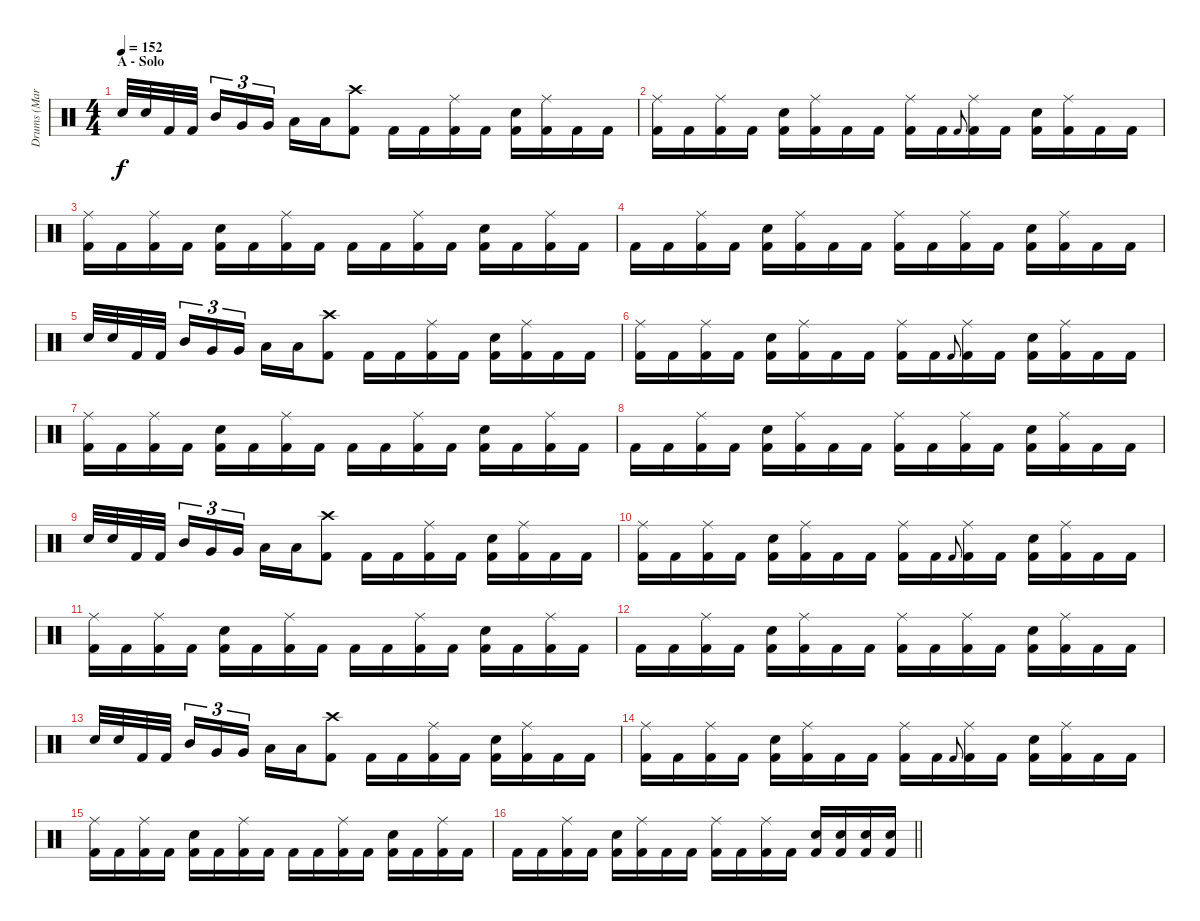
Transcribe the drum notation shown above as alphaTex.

\track ("Drums (Mark Arrington)" "Drums (Mar") {instrument percussion}
\staff {score}
\articulation defaults
\ts (4 4)
\section ("" "A - Solo")
\tempo 152
\clef neutral
\ks aminor "Electric Snare (hit)".32{dy f} "Electric Snare (hit)".32 "Kick (hit) 2".32 "Kick (hit) 2".32{beam splitsecondary} "Mid Tom (hit)".16{tu (3 2)} "Very Low Tom (hit)".16{tu (3 2)} "Very Low Tom (hit)".16{tu (3 2)} "Low Floor Tom (hit)".16 "Low Floor Tom (hit)".16
("Crash high (hit)" "Kick (hit) 2").8 "Kick (hit) 2".16 "Kick (hit) 2".16 ("Ride (middle)" "Kick (hit) 2").16 "Kick (hit) 2".16 ("Electric Snare (hit)" "Kick (hit) 2").16 ("Ride (middle)" "Kick (hit) 2").16 "Kick (hit) 2".16 "Kick (hit) 2".16 |
("Ride (middle)" "Kick (hit) 2").16 "Kick (hit) 2".16 ("Ride (middle)" "Kick (hit) 2").16 "Kick (hit) 2".16 ("Electric Snare (hit)" "Kick (hit) 2").16 ("Ride (middle)" "Kick (hit) 2").16 "Kick (hit) 2".16 "Kick (hit) 2".16 ("Ride (middle)" "Kick (hit) 2").16 "Kick (hit) 2".16 "Kick (hit) 2".8{gr onbeat} ("Ride (middle)" "Kick (hit) 2").16 "Kick (hit) 2".16 ("Electric Snare (hit)" "Kick (hit) 2").16 ("Ride (middle)" "Kick (hit) 2").16 "Kick (hit) 2".16 "Kick (hit) 2".16 |
("Ride (middle)" "Kick (hit) 2").16 "Kick (hit) 2".16 ("Ride (middle)" "Kick (hit) 2").16 "Kick (hit) 2".16 ("Electric Snare (hit)" "Kick (hit) 2").16 "Kick (hit) 2".16 ("Ride (middle)" "Kick (hit) 2").16 "Kick (hit) 2".16 "Kick (hit) 2".16 "Kick (hit) 2".16 ("Ride (middle)" "Kick (hit) 2").16 "Kick (hit) 2".16 ("Electric Snare (hit)" "Kick (hit) 2").16 "Kick (hit) 2".16 ("Ride (middle)" "Kick (hit) 2").16 "Kick (hit) 2".16 |
"Kick (hit) 2".16 "Kick (hit) 2".16 ("Ride (middle)" "Kick (hit) 2").16 "Kick (hit) 2".16 ("Electric Snare (hit)" "Kick (hit) 2").16 ("Ride (middle)" "Kick (hit) 2").16 "Kick (hit) 2".16 "Kick (hit) 2".16 ("Ride (middle)" "Kick (hit) 2").16 "Kick (hit) 2".16 ("Ride (middle)" "Kick (hit) 2").16 "Kick (hit) 2".16 ("Electric Snare (hit)" "Kick (hit) 2").16 ("Ride (middle)" "Kick (hit) 2").16 "Kick (hit) 2".16 "Kick (hit) 2".16 |
"Electric Snare (hit)".32 "Electric Snare (hit)".32 "Kick (hit) 2".32 "Kick (hit) 2".32{beam splitsecondary} "Mid Tom (hit)".16{tu (3 2)} "Very Low Tom (hit)".16{tu (3 2)} "Very Low Tom (hit)".16{tu (3 2)} "Low Floor Tom (hit)".16 "Low Floor Tom (hit)".16 ("Crash high (hit)" "Kick (hit) 2").8 "Kick (hit) 2".16 "Kick (hit) 2".16 ("Ride (middle)" "Kick (hit) 2").16 "Kick (hit) 2".16 ("Electric Snare (hit)" "Kick (hit) 2").16 ("Ride (middle)" "Kick (hit) 2").16 "Kick (hit) 2".16 "Kick (hit) 2".16 |
("Ride (middle)" "Kick (hit) 2").16 "Kick (hit) 2".16 ("Ride (middle)" "Kick (hit) 2").16 "Kick (hit) 2".16 ("Electric Snare (hit)" "Kick (hit) 2").16 ("Ride (middle)" "Kick (hit) 2").16 "Kick (hit) 2".16 "Kick (hit) 2".16 ("Ride (middle)" "Kick (hit) 2").16 "Kick (hit) 2".16 "Kick (hit) 2".8{gr onbeat} ("Ride (middle)" "Kick (hit) 2").16 "Kick (hit) 2".16 ("Electric Snare (hit)" "Kick (hit) 2").16 ("Ride (middle)" "Kick (hit) 2").16 "Kick (hit) 2".16 "Kick (hit) 2".16 |
("Ride (middle)" "Kick (hit) 2").16 "Kick (hit) 2".16 ("Ride (middle)" "Kick (hit) 2").16 "Kick (hit) 2".16 ("Electric Snare (hit)" "Kick (hit) 2").16 "Kick (hit) 2".16 ("Ride (middle)" "Kick (hit) 2").16 "Kick (hit) 2".16 "Kick (hit) 2".16 "Kick (hit) 2".16 ("Ride (middle)" "Kick (hit) 2").16 "Kick (hit) 2".16 ("Electric Snare (hit)" "Kick (hit) 2").16 "Kick (hit) 2".16 ("Ride (middle)" "Kick (hit) 2").16 "Kick (hit) 2".16 |
"Kick (hit) 2".16 "Kick (hit) 2".16 ("Ride (middle)" "Kick (hit) 2").16 "Kick (hit) 2".16 ("Electric Snare (hit)" "Kick (hit) 2").16 ("Ride (middle)" "Kick (hit) 2").16 "Kick (hit) 2".16 "Kick (hit) 2".16 ("Ride (middle)" "Kick (hit) 2").16 "Kick (hit) 2".16 ("Ride (middle)" "Kick (hit) 2").16 "Kick (hit) 2".16 ("Electric Snare (hit)" "Kick (hit) 2").16 ("Ride (middle)" "Kick (hit) 2").16 "Kick (hit) 2".16 "Kick (hit) 2".16 |
"Electric Snare (hit)".32 "Electric Snare (hit)".32 "Kick (hit) 2".32 "Kick (hit) 2".32{beam splitsecondary} "Mid Tom (hit)".16{tu (3 2)} "Very Low Tom (hit)".16{tu (3 2)} "Very Low Tom (hit)".16{tu (3 2)} "Low Floor Tom (hit)".16 "Low Floor Tom (hit)".16 ("Crash high (hit)" "Kick (hit) 2").8 "Kick (hit) 2".16 "Kick (hit) 2".16 ("Ride (middle)" "Kick (hit) 2").16 "Kick (hit) 2".16 ("Electric Snare (hit)" "Kick (hit) 2").16 ("Ride (middle)" "Kick (hit) 2").16 "Kick (hit) 2".16 "Kick (hit) 2".16 |
("Ride (middle)" "Kick (hit) 2").16 "Kick (hit) 2".16 ("Ride (middle)" "Kick (hit) 2").16 "Kick (hit) 2".16 ("Electric Snare (hit)" "Kick (hit) 2").16 ("Ride (middle)" "Kick (hit) 2").16 "Kick (hit) 2".16 "Kick (hit) 2".16 ("Ride (middle)" "Kick (hit) 2").16 "Kick (hit) 2".16 "Kick (hit) 2".8{gr onbeat} ("Ride (middle)" "Kick (hit) 2").16 "Kick (hit) 2".16 ("Electric Snare (hit)" "Kick (hit) 2").16 ("Ride (middle)" "Kick (hit) 2").16 "Kick (hit) 2".16 "Kick (hit) 2".16 |
("Ride (middle)" "Kick (hit) 2").16 "Kick (hit) 2".16 ("Ride (middle)" "Kick (hit) 2").16 "Kick (hit) 2".16 ("Electric Snare (hit)" "Kick (hit) 2").16 "Kick (hit) 2".16 ("Ride (middle)" "Kick (hit) 2").16 "Kick (hit) 2".16 "Kick (hit) 2".16 "Kick (hit) 2".16 ("Ride (middle)" "Kick (hit) 2").16 "Kick (hit) 2".16 ("Electric Snare (hit)" "Kick (hit) 2").16 "Kick (hit) 2".16 ("Ride (middle)" "Kick (hit) 2").16 "Kick (hit) 2".16 |
"Kick (hit) 2".16 "Kick (hit) 2".16 ("Ride (middle)" "Kick (hit) 2").16 "Kick (hit) 2".16 ("Electric Snare (hit)" "Kick (hit) 2").16 ("Ride (middle)" "Kick (hit) 2").16 "Kick (hit) 2".16 "Kick (hit) 2".16 ("Ride (middle)" "Kick (hit) 2").16 "Kick (hit) 2".16 ("Ride (middle)" "Kick (hit) 2").16 "Kick (hit) 2".16 ("Electric Snare (hit)" "Kick (hit) 2").16 ("Ride (middle)" "Kick (hit) 2").16 "Kick (hit) 2".16 "Kick (hit) 2".16 |
"Electric Snare (hit)".32 "Electric Snare (hit)".32 "Kick (hit) 2".32 "Kick (hit) 2".32{beam splitsecondary} "Mid Tom (hit)".16{tu (3 2)} "Very Low Tom (hit)".16{tu (3 2)} "Very Low Tom (hit)".16{tu (3 2)} "Low Floor Tom (hit)".16 "Low Floor Tom (hit)".16 ("Crash high (hit)" "Kick (hit) 2").8 "Kick (hit) 2".16 "Kick (hit) 2".16 ("Ride (middle)" "Kick (hit) 2").16 "Kick (hit) 2".16 ("Electric Snare (hit)" "Kick (hit) 2").16 ("Ride (middle)" "Kick (hit) 2").16 "Kick (hit) 2".16 "Kick (hit) 2".16 |
("Ride (middle)" "Kick (hit) 2").16 "Kick (hit) 2".16 ("Ride (middle)" "Kick (hit) 2").16 "Kick (hit) 2".16 ("Electric Snare (hit)" "Kick (hit) 2").16 ("Ride (middle)" "Kick (hit) 2").16 "Kick (hit) 2".16 "Kick (hit) 2".16 ("Ride (middle)" "Kick (hit) 2").16 "Kick (hit) 2".16 "Kick (hit) 2".8{gr onbeat} ("Ride (middle)" "Kick (hit) 2").16 "Kick (hit) 2".16 ("Electric Snare (hit)" "Kick (hit) 2").16 ("Ride (middle)" "Kick (hit) 2").16 "Kick (hit) 2".16 "Kick (hit) 2".16 |
("Ride (middle)" "Kick (hit) 2").16 "Kick (hit) 2".16 ("Ride (middle)" "Kick (hit) 2").16 "Kick (hit) 2".16 ("Electric Snare (hit)" "Kick (hit) 2").16 "Kick (hit) 2".16 ("Ride (middle)" "Kick (hit) 2").16 "Kick (hit) 2".16 "Kick (hit) 2".16 "Kick (hit) 2".16 ("Ride (middle)" "Kick (hit) 2").16 "Kick (hit) 2".16 ("Electric Snare (hit)" "Kick (hit) 2").16 "Kick (hit) 2".16 ("Ride (middle)" "Kick (hit) 2").16 "Kick (hit) 2".16 |
\barLineRight lightlight "Kick (hit) 2".16 "Kick (hit) 2".16
("Ride (middle)" "Kick (hit) 2").16 "Kick (hit) 2".16 ("Electric Snare (hit)" "Kick (hit) 2").16 ("Ride (middle)" "Kick (hit) 2").16 "Kick (hit) 2".16 "Kick (hit) 2".16 ("Ride (middle)" "Kick (hit) 2").16 "Kick (hit) 2".16 ("Ride (middle)" "Kick (hit) 2").16 "Kick (hit) 2".16 ("Electric Snare (hit)" "Kick (hit) 2").16 ("Electric Snare (hit)" "Kick (hit) 2").16 ("Electric Snare (hit)" "Kick (hit) 2").16 ("Electric Snare (hit)" "Kick (hit) 2").16
